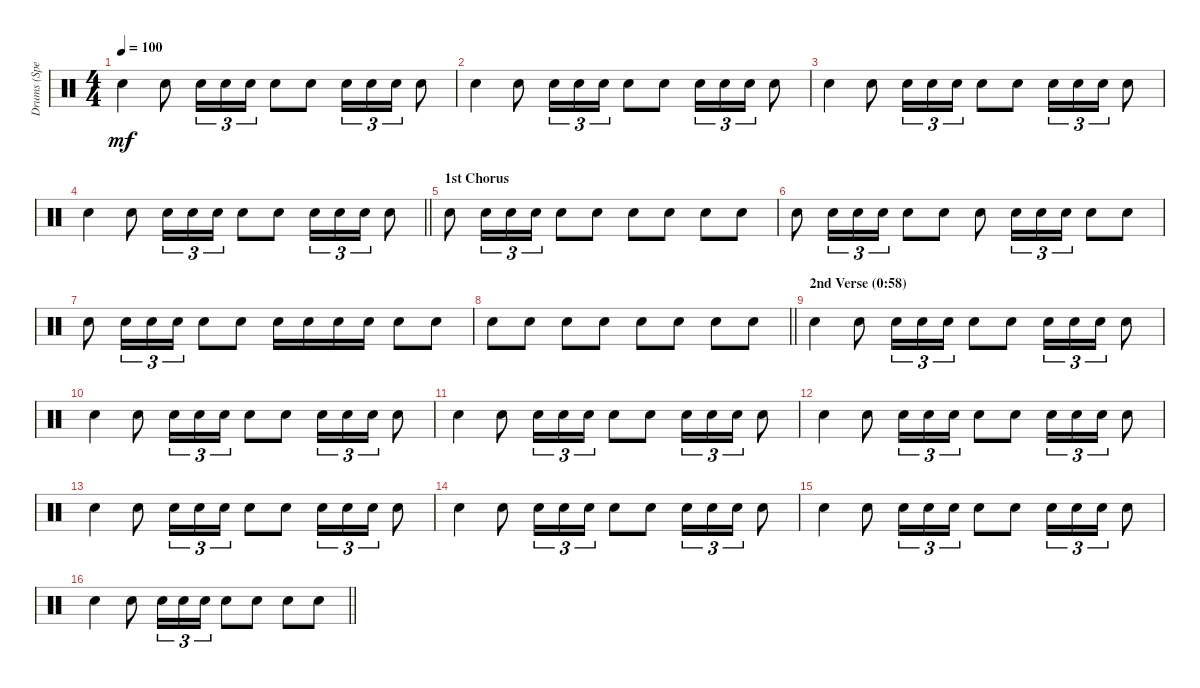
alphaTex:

\track ("Drums (Spencer Dryden)" "Drums (Spe") {instrument percussion}
\staff {score}
\articulation defaults
\ts (4 4)
\tempo 100
\clef neutral
\ks c "Snare (hit) 2".4{dy mf} "Snare (hit) 2".8 "Snare (hit) 2".16{tu (3 2)} "Snare (hit) 2".16{tu (3 2)} "Snare (hit) 2".16{tu (3 2)} "Snare (hit) 2".8 "Snare (hit) 2".8 "Snare (hit) 2".16{tu (3 2)} "Snare (hit) 2".16{tu (3 2)} "Snare (hit) 2".16{tu (3 2)} "Snare (hit) 2".8
|
"Snare (hit) 2".4 "Snare (hit) 2".8 "Snare (hit) 2".16{tu (3 2)} "Snare (hit) 2".16{tu (3 2)} "Snare (hit) 2".16{tu (3 2)} "Snare (hit) 2".8 "Snare (hit) 2".8 "Snare (hit) 2".16{tu (3 2)} "Snare (hit) 2".16{tu (3 2)} "Snare (hit) 2".16{tu (3 2)} "Snare (hit) 2".8 |
"Snare (hit) 2".4 "Snare (hit) 2".8 "Snare (hit) 2".16{tu (3 2)} "Snare (hit) 2".16{tu (3 2)} "Snare (hit) 2".16{tu (3 2)} "Snare (hit) 2".8 "Snare (hit) 2".8 "Snare (hit) 2".16{tu (3 2)} "Snare (hit) 2".16{tu (3 2)} "Snare (hit) 2".16{tu (3 2)} "Snare (hit) 2".8 |
\barLineRight lightlight "Snare (hit) 2".4 "Snare (hit) 2".8 "Snare (hit) 2".16{tu (3 2)} "Snare (hit) 2".16{tu (3 2)} "Snare (hit) 2".16{tu (3 2)} "Snare (hit) 2".8 "Snare (hit) 2".8 "Snare (hit) 2".16{tu (3 2)} "Snare (hit) 2".16{tu (3 2)} "Snare (hit) 2".16{tu (3 2)} "Snare (hit) 2".8
|
\section ("" "1st Chorus ")
"Snare (hit) 2".8 "Snare (hit) 2".16{tu (3 2)} "Snare (hit) 2".16{tu (3 2)} "Snare (hit) 2".16{tu (3 2)} "Snare (hit) 2".8 "Snare (hit) 2".8 "Snare (hit) 2".8 "Snare (hit) 2".8 "Snare (hit) 2".8 "Snare (hit) 2".8 |
"Snare (hit) 2".8 "Snare (hit) 2".16{tu (3 2)} "Snare (hit) 2".16{tu (3 2)} "Snare (hit) 2".16{tu (3 2)} "Snare (hit) 2".8 "Snare (hit) 2".8 "Snare (hit) 2".8 "Snare (hit) 2".16{tu (3 2)} "Snare (hit) 2".16{tu (3 2)} "Snare (hit) 2".16{tu (3 2)} "Snare (hit) 2".8 "Snare (hit) 2".8 |
"Snare (hit) 2".8 "Snare (hit) 2".16{tu (3 2)} "Snare (hit) 2".16{tu (3 2)} "Snare (hit) 2".16{tu (3 2)} "Snare (hit) 2".8 "Snare (hit) 2".8 "Snare (hit) 2".16 "Snare (hit) 2".16 "Snare (hit) 2".16 "Snare (hit) 2".16 "Snare (hit) 2".8 "Snare (hit) 2".8 |
\barLineRight lightlight "Snare (hit) 2".8 "Snare (hit) 2".8 "Snare (hit) 2".8 "Snare (hit) 2".8 "Snare (hit) 2".8 "Snare (hit) 2".8 "Snare (hit) 2".8 "Snare (hit) 2".8
|
\section ("" "2nd Verse (0:58)")
"Snare (hit) 2".4 "Snare (hit) 2".8 "Snare (hit) 2".16{tu (3 2)} "Snare (hit) 2".16{tu (3 2)} "Snare (hit) 2".16{tu (3 2)} "Snare (hit) 2".8 "Snare (hit) 2".8 "Snare (hit) 2".16{tu (3 2)} "Snare (hit) 2".16{tu (3 2)} "Snare (hit) 2".16{tu (3 2)} "Snare (hit) 2".8 |
"Snare (hit) 2".4 "Snare (hit) 2".8 "Snare (hit) 2".16{tu (3 2)} "Snare (hit) 2".16{tu (3 2)} "Snare (hit) 2".16{tu (3 2)} "Snare (hit) 2".8 "Snare (hit) 2".8 "Snare (hit) 2".16{tu (3 2)} "Snare (hit) 2".16{tu (3 2)} "Snare (hit) 2".16{tu (3 2)} "Snare (hit) 2".8 |
"Snare (hit) 2".4 "Snare (hit) 2".8 "Snare (hit) 2".16{tu (3 2)} "Snare (hit) 2".16{tu (3 2)} "Snare (hit) 2".16{tu (3 2)} "Snare (hit) 2".8 "Snare (hit) 2".8 "Snare (hit) 2".16{tu (3 2)} "Snare (hit) 2".16{tu (3 2)} "Snare (hit) 2".16{tu (3 2)} "Snare (hit) 2".8 |
"Snare (hit) 2".4 "Snare (hit) 2".8 "Snare (hit) 2".16{tu (3 2)} "Snare (hit) 2".16{tu (3 2)} "Snare (hit) 2".16{tu (3 2)} "Snare (hit) 2".8 "Snare (hit) 2".8 "Snare (hit) 2".16{tu (3 2)} "Snare (hit) 2".16{tu (3 2)} "Snare (hit) 2".16{tu (3 2)} "Snare (hit) 2".8 |
"Snare (hit) 2".4 "Snare (hit) 2".8 "Snare (hit) 2".16{tu (3 2)} "Snare (hit) 2".16{tu (3 2)} "Snare (hit) 2".16{tu (3 2)} "Snare (hit) 2".8 "Snare (hit) 2".8 "Snare (hit) 2".16{tu (3 2)} "Snare (hit) 2".16{tu (3 2)} "Snare (hit) 2".16{tu (3 2)} "Snare (hit) 2".8 |
"Snare (hit) 2".4 "Snare (hit) 2".8 "Snare (hit) 2".16{tu (3 2)} "Snare (hit) 2".16{tu (3 2)} "Snare (hit) 2".16{tu (3 2)} "Snare (hit) 2".8 "Snare (hit) 2".8 "Snare (hit) 2".16{tu (3 2)} "Snare (hit) 2".16{tu (3 2)} "Snare (hit) 2".16{tu (3 2)} "Snare (hit) 2".8 |
"Snare (hit) 2".4 "Snare (hit) 2".8 "Snare (hit) 2".16{tu (3 2)} "Snare (hit) 2".16{tu (3 2)} "Snare (hit) 2".16{tu (3 2)} "Snare (hit) 2".8 "Snare (hit) 2".8 "Snare (hit) 2".16{tu (3 2)} "Snare (hit) 2".16{tu (3 2)} "Snare (hit) 2".16{tu (3 2)} "Snare (hit) 2".8 |
\barLineRight lightlight "Snare (hit) 2".4 "Snare (hit) 2".8 "Snare (hit) 2".16{tu (3 2)} "Snare (hit) 2".16{tu (3 2)} "Snare (hit) 2".16{tu (3 2)} "Snare (hit) 2".8 "Snare (hit) 2".8 "Snare (hit) 2".8 "Snare (hit) 2".8
